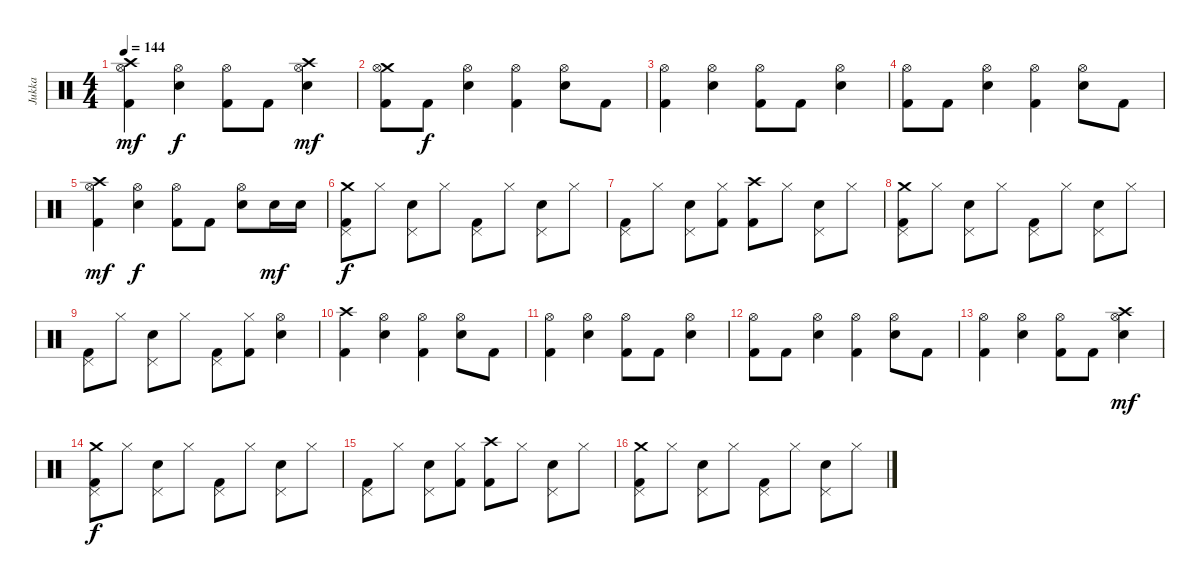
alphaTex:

\track ("Jukka" "Jukka") {instrument percussion}
\staff {score}
\articulation defaults
\ts (4 4)
\tempo 144
\clef neutral
\ks c
("Crash high (hit)" "Hi-Hat (open)" "Kick (hit) 2").4{dy mf} ("Hi-Hat (open)" "Electric Snare (hit)").4{dy f} ("Hi-Hat (open)" "Kick (hit) 2").8 "Kick (hit) 2".8 ("Crash high (hit)" "Hi-Hat (open)" "Electric Snare (hit)").4{dy mf} |
("Crash medium (hit)" "Hi-Hat (open)" "Kick (hit) 2").8 "Kick (hit) 2".8{dy f} ("Hi-Hat (open)" "Electric Snare (hit)").4 ("Hi-Hat (open)" "Kick (hit) 2").4 ("Hi-Hat (open)" "Electric Snare (hit)").8 "Kick (hit) 2".8 |
("Hi-Hat (open)" "Kick (hit) 2").4 ("Hi-Hat (open)" "Electric Snare (hit)").4 ("Hi-Hat (open)" "Kick (hit) 2").8 "Kick (hit) 2".8 ("Hi-Hat (open)" "Electric Snare (hit)").4 |
("Hi-Hat (open)" "Kick (hit) 2").8 "Kick (hit) 2".8 ("Hi-Hat (open)" "Electric Snare (hit)").4 ("Hi-Hat (open)" "Kick (hit) 2").4 ("Hi-Hat (open)" "Electric Snare (hit)").8 "Kick (hit) 2".8 |
("Crash high (hit)" "Hi-Hat (open)" "Kick (hit) 2").4{dy mf} ("Hi-Hat (open)" "Electric Snare (hit)").4{dy f} ("Hi-Hat (open)" "Kick (hit) 2").8 "Kick (hit) 2".8 ("Hi-Hat (open)" "Electric Snare (hit)").8 "Electric Snare (hit)".16{dy mf} "Electric Snare (hit)".16 |
("Crash medium (hit)" "Pedal Hi-Hat (hit)" "Kick (hit) 2").8{dy f} "Hi-Hat (closed)".8 ("Pedal Hi-Hat (hit)" "Electric Snare (hit)").8 "Hi-Hat (closed)".8 ("Pedal Hi-Hat (hit)" "Kick (hit) 2").8 "Hi-Hat (closed)".8 ("Pedal Hi-Hat (hit)" "Electric Snare (hit)").8 "Hi-Hat (closed)".8 |
("Pedal Hi-Hat (hit)" "Kick (hit) 2").8 "Hi-Hat (closed)".8 ("Pedal Hi-Hat (hit)" "Electric Snare (hit)").8 ("Hi-Hat (closed)" "Kick (hit) 2").8 ("Crash high (hit)" "Kick (hit) 2").8 "Hi-Hat (closed)".8 ("Pedal Hi-Hat (hit)" "Electric Snare (hit)").8 "Hi-Hat (closed)".8 |
("Crash medium (hit)" "Pedal Hi-Hat (hit)" "Kick (hit) 2").8 "Hi-Hat (closed)".8 ("Pedal Hi-Hat (hit)" "Electric Snare (hit)").8 "Hi-Hat (closed)".8 ("Pedal Hi-Hat (hit)" "Kick (hit) 2").8 "Hi-Hat (closed)".8 ("Pedal Hi-Hat (hit)" "Electric Snare (hit)").8 "Hi-Hat (closed)".8 |
("Pedal Hi-Hat (hit)" "Kick (hit) 2").8 "Hi-Hat (closed)".8 ("Pedal Hi-Hat (hit)" "Electric Snare (hit)").8 "Hi-Hat (closed)".8 ("Pedal Hi-Hat (hit)" "Kick (hit) 2").8 ("Hi-Hat (closed)" "Kick (hit) 2").8 ("Hi-Hat (open)" "Electric Snare (hit)").4 |
("Crash high (hit)" "Kick (hit) 2").4 ("Hi-Hat (open)" "Electric Snare (hit)").4 ("Hi-Hat (open)" "Kick (hit) 2").4 ("Hi-Hat (open)" "Electric Snare (hit)").8 "Kick (hit) 2".8 |
("Hi-Hat (open)" "Kick (hit) 2").4 ("Hi-Hat (open)" "Electric Snare (hit)").4 ("Hi-Hat (open)" "Kick (hit) 2").8 "Kick (hit) 2".8 ("Hi-Hat (open)" "Electric Snare (hit)").4 |
("Hi-Hat (open)" "Kick (hit) 2").8 "Kick (hit) 2".8 ("Hi-Hat (open)" "Electric Snare (hit)").4 ("Hi-Hat (open)" "Kick (hit) 2").4 ("Hi-Hat (open)" "Electric Snare (hit)").8 "Kick (hit) 2".8 |
("Hi-Hat (open)" "Kick (hit) 2").4 ("Hi-Hat (open)" "Electric Snare (hit)").4 ("Hi-Hat (open)" "Kick (hit) 2").8 "Kick (hit) 2".8 ("Crash high (hit)" "Hi-Hat (open)" "Electric Snare (hit)").4{dy mf} |
("Crash medium (hit)" "Pedal Hi-Hat (hit)" "Kick (hit) 2").8{dy f} "Hi-Hat (closed)".8 ("Pedal Hi-Hat (hit)" "Electric Snare (hit)").8 "Hi-Hat (closed)".8 ("Pedal Hi-Hat (hit)" "Kick (hit) 2").8 "Hi-Hat (closed)".8 ("Pedal Hi-Hat (hit)" "Electric Snare (hit)").8 "Hi-Hat (closed)".8 |
("Pedal Hi-Hat (hit)" "Kick (hit) 2").8 "Hi-Hat (closed)".8 ("Pedal Hi-Hat (hit)" "Electric Snare (hit)").8 ("Hi-Hat (closed)" "Kick (hit) 2").8 ("Crash high (hit)" "Kick (hit) 2").8 "Hi-Hat (closed)".8 ("Pedal Hi-Hat (hit)" "Electric Snare (hit)").8 "Hi-Hat (closed)".8 |
("Crash medium (hit)" "Pedal Hi-Hat (hit)" "Kick (hit) 2").8 "Hi-Hat (closed)".8 ("Pedal Hi-Hat (hit)" "Electric Snare (hit)").8 "Hi-Hat (closed)".8 ("Pedal Hi-Hat (hit)" "Kick (hit) 2").8 "Hi-Hat (closed)".8 ("Pedal Hi-Hat (hit)" "Electric Snare (hit)").8 "Hi-Hat (closed)".8
